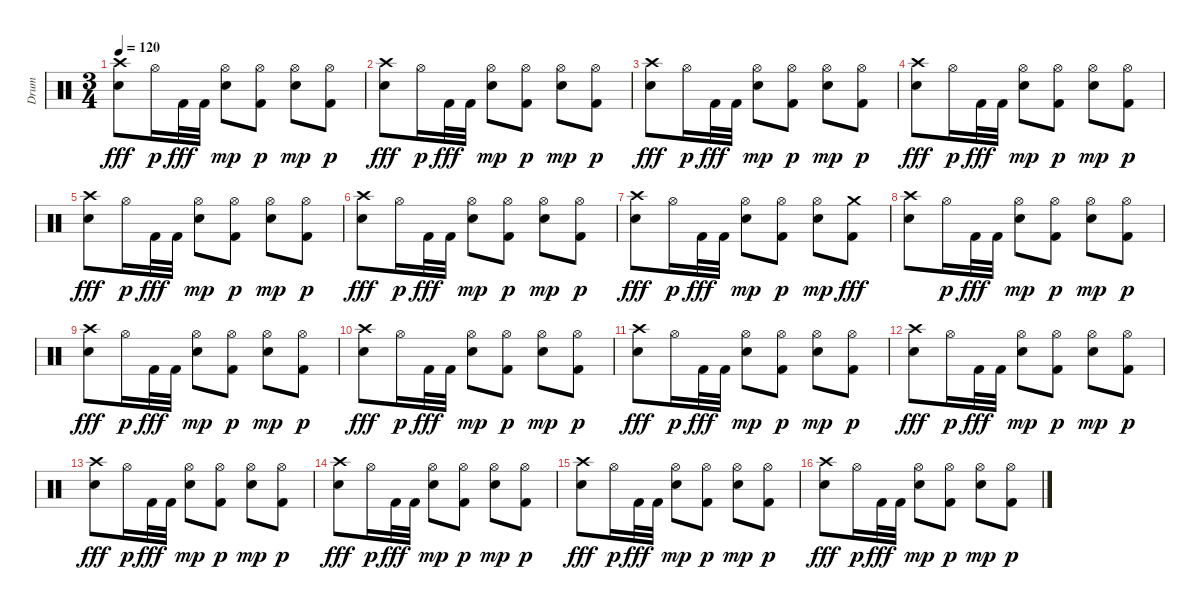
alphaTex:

\track ("Drum" "Drum") {instrument percussion}
\staff {score}
\articulation defaults
\ts (3 4)
\tempo 120
\clef neutral
\ks c
("Electric Snare (hit)" "Crash high (hit)").8{dy fff} "Hi-Hat (open)".16{dy p} "Kick (hit) 2".32{dy fff} "Kick (hit) 2".32 ("Electric Snare (hit)" "Hi-Hat (open)").8{dy mp} ("Kick (hit) 2" "Hi-Hat (open)").8{dy p} ("Electric Snare (hit)" "Hi-Hat (open)").8{dy mp} ("Kick (hit) 2" "Hi-Hat (open)").8{dy p} |
("Electric Snare (hit)" "Crash high (hit)").8{dy fff} "Hi-Hat (open)".16{dy p} "Kick (hit) 2".32{dy fff} "Kick (hit) 2".32 ("Electric Snare (hit)" "Hi-Hat (open)").8{dy mp} ("Kick (hit) 2" "Hi-Hat (open)").8{dy p} ("Electric Snare (hit)" "Hi-Hat (open)").8{dy mp} ("Kick (hit) 2" "Hi-Hat (open)").8{dy p} |
("Electric Snare (hit)" "Crash high (hit)").8{dy fff} "Hi-Hat (open)".16{dy p} "Kick (hit) 2".32{dy fff} "Kick (hit) 2".32 ("Electric Snare (hit)" "Hi-Hat (open)").8{dy mp} ("Kick (hit) 2" "Hi-Hat (open)").8{dy p} ("Electric Snare (hit)" "Hi-Hat (open)").8{dy mp} ("Kick (hit) 2" "Hi-Hat (open)").8{dy p} |
("Electric Snare (hit)" "Crash high (hit)").8{dy fff} "Hi-Hat (open)".16{dy p} "Kick (hit) 2".32{dy fff} "Kick (hit) 2".32 ("Electric Snare (hit)" "Hi-Hat (open)").8{dy mp} ("Kick (hit) 2" "Hi-Hat (open)").8{dy p} ("Electric Snare (hit)" "Hi-Hat (open)").8{dy mp} ("Kick (hit) 2" "Hi-Hat (open)").8{dy p} |
("Electric Snare (hit)" "Crash high (hit)").8{dy fff} "Hi-Hat (open)".16{dy p} "Kick (hit) 2".32{dy fff} "Kick (hit) 2".32 ("Electric Snare (hit)" "Hi-Hat (open)").8{dy mp} ("Kick (hit) 2" "Hi-Hat (open)").8{dy p} ("Electric Snare (hit)" "Hi-Hat (open)").8{dy mp} ("Kick (hit) 2" "Hi-Hat (open)").8{dy p} |
("Electric Snare (hit)" "Crash high (hit)").8{dy fff} "Hi-Hat (open)".16{dy p} "Kick (hit) 2".32{dy fff} "Kick (hit) 2".32 ("Electric Snare (hit)" "Hi-Hat (open)").8{dy mp} ("Kick (hit) 2" "Hi-Hat (open)").8{dy p} ("Electric Snare (hit)" "Hi-Hat (open)").8{dy mp} ("Kick (hit) 2" "Hi-Hat (open)").8{dy p} |
("Electric Snare (hit)" "Crash high (hit)").8{dy fff} "Hi-Hat (open)".16{dy p} "Kick (hit) 2".32{dy fff} "Kick (hit) 2".32 ("Electric Snare (hit)" "Hi-Hat (open)").8{dy mp} ("Kick (hit) 2" "Hi-Hat (open)").8{dy p} ("Electric Snare (hit)" "Hi-Hat (open)").8{dy mp} ("Kick (hit) 2" "Crash medium (hit)").8{dy fff} |
("Electric Snare (hit)" "Crash high (hit)").8 "Hi-Hat (open)".16{dy p} "Kick (hit) 2".32{dy fff} "Kick (hit) 2".32 ("Electric Snare (hit)" "Hi-Hat (open)").8{dy mp} ("Kick (hit) 2" "Hi-Hat (open)").8{dy p} ("Electric Snare (hit)" "Hi-Hat (open)").8{dy mp} ("Kick (hit) 2" "Hi-Hat (open)").8{dy p} |
("Electric Snare (hit)" "Crash high (hit)").8{dy fff} "Hi-Hat (open)".16{dy p} "Kick (hit) 2".32{dy fff} "Kick (hit) 2".32 ("Electric Snare (hit)" "Hi-Hat (open)").8{dy mp} ("Kick (hit) 2" "Hi-Hat (open)").8{dy p} ("Electric Snare (hit)" "Hi-Hat (open)").8{dy mp} ("Kick (hit) 2" "Hi-Hat (open)").8{dy p} |
("Electric Snare (hit)" "Crash high (hit)").8{dy fff} "Hi-Hat (open)".16{dy p} "Kick (hit) 2".32{dy fff} "Kick (hit) 2".32 ("Electric Snare (hit)" "Hi-Hat (open)").8{dy mp} ("Kick (hit) 2" "Hi-Hat (open)").8{dy p} ("Electric Snare (hit)" "Hi-Hat (open)").8{dy mp} ("Kick (hit) 2" "Hi-Hat (open)").8{dy p} |
("Electric Snare (hit)" "Crash high (hit)").8{dy fff} "Hi-Hat (open)".16{dy p} "Kick (hit) 2".32{dy fff} "Kick (hit) 2".32 ("Electric Snare (hit)" "Hi-Hat (open)").8{dy mp} ("Kick (hit) 2" "Hi-Hat (open)").8{dy p} ("Electric Snare (hit)" "Hi-Hat (open)").8{dy mp} ("Kick (hit) 2" "Hi-Hat (open)").8{dy p} |
("Electric Snare (hit)" "Crash high (hit)").8{dy fff} "Hi-Hat (open)".16{dy p} "Kick (hit) 2".32{dy fff} "Kick (hit) 2".32 ("Electric Snare (hit)" "Hi-Hat (open)").8{dy mp} ("Kick (hit) 2" "Hi-Hat (open)").8{dy p} ("Electric Snare (hit)" "Hi-Hat (open)").8{dy mp} ("Kick (hit) 2" "Hi-Hat (open)").8{dy p} |
("Electric Snare (hit)" "Crash high (hit)").8{dy fff} "Hi-Hat (open)".16{dy p} "Kick (hit) 2".32{dy fff} "Kick (hit) 2".32 ("Electric Snare (hit)" "Hi-Hat (open)").8{dy mp} ("Kick (hit) 2" "Hi-Hat (open)").8{dy p} ("Electric Snare (hit)" "Hi-Hat (open)").8{dy mp} ("Kick (hit) 2" "Hi-Hat (open)").8{dy p} |
("Electric Snare (hit)" "Crash high (hit)").8{dy fff} "Hi-Hat (open)".16{dy p} "Kick (hit) 2".32{dy fff} "Kick (hit) 2".32 ("Electric Snare (hit)" "Hi-Hat (open)").8{dy mp} ("Kick (hit) 2" "Hi-Hat (open)").8{dy p} ("Electric Snare (hit)" "Hi-Hat (open)").8{dy mp} ("Kick (hit) 2" "Hi-Hat (open)").8{dy p} |
("Electric Snare (hit)" "Crash high (hit)").8{dy fff} "Hi-Hat (open)".16{dy p} "Kick (hit) 2".32{dy fff} "Kick (hit) 2".32 ("Electric Snare (hit)" "Hi-Hat (open)").8{dy mp} ("Kick (hit) 2" "Hi-Hat (open)").8{dy p} ("Electric Snare (hit)" "Hi-Hat (open)").8{dy mp} ("Kick (hit) 2" "Hi-Hat (open)").8{dy p} |
("Electric Snare (hit)" "Crash high (hit)").8{dy fff} "Hi-Hat (open)".16{dy p} "Kick (hit) 2".32{dy fff} "Kick (hit) 2".32 ("Electric Snare (hit)" "Hi-Hat (open)").8{dy mp} ("Kick (hit) 2" "Hi-Hat (open)").8{dy p} ("Electric Snare (hit)" "Hi-Hat (open)").8{dy mp} ("Kick (hit) 2" "Hi-Hat (open)").8{dy p}
